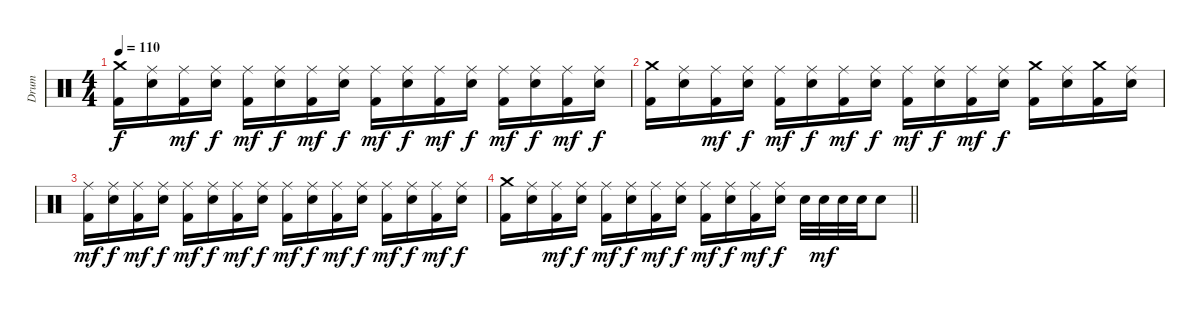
\track ("Drum" "Drum") {instrument percussion}
\staff {score}
\articulation defaults
\ts (4 4)
\tempo 110
\clef neutral
\ks c
("Crash medium (hit)" "Kick (hit) 2").16{dy f} ("Ride (middle)" "Snare (hit) 2").16 ("Ride (middle)" "Kick (hit) 2").16{dy mf} ("Ride (middle)" "Snare (hit) 2").16{dy f} ("Ride (middle)" "Kick (hit) 2").16{dy mf} ("Ride (middle)" "Snare (hit) 2").16{dy f} ("Ride (middle)" "Kick (hit) 2").16{dy mf} ("Ride (middle)" "Snare (hit) 2").16{dy f} ("Ride (middle)" "Kick (hit) 2").16{dy mf} ("Ride (middle)" "Snare (hit) 2").16{dy f} ("Ride (middle)" "Kick (hit) 2").16{dy mf} ("Ride (middle)" "Snare (hit) 2").16{dy f} ("Ride (middle)" "Kick (hit) 2").16{dy mf} ("Ride (middle)" "Snare (hit) 2").16{dy f} ("Ride (middle)" "Kick (hit) 2").16{dy mf} ("Ride (middle)" "Snare (hit) 2").16{dy f} |
("Crash medium (hit)" "Kick (hit) 2").16 ("Ride (middle)" "Snare (hit) 2").16 ("Ride (middle)" "Kick (hit) 2").16{dy mf} ("Ride (middle)" "Snare (hit) 2").16{dy f} ("Ride (middle)" "Kick (hit) 2").16{dy mf} ("Ride (middle)" "Snare (hit) 2").16{dy f} ("Ride (middle)" "Kick (hit) 2").16{dy mf} ("Ride (middle)" "Snare (hit) 2").16{dy f} ("Ride (middle)" "Kick (hit) 2").16{dy mf} ("Ride (middle)" "Snare (hit) 2").16{dy f} ("Ride (middle)" "Kick (hit) 2").16{dy mf} ("Ride (middle)" "Snare (hit) 2").16{dy f} ("Crash medium (hit)" "Kick (hit) 2").16 ("Ride (middle)" "Snare (hit) 2").16 ("Crash medium (hit)" "Kick (hit) 2").16 ("Ride (middle)" "Snare (hit) 2").16 |
("Ride (middle)" "Kick (hit) 2").16{dy mf} ("Ride (middle)" "Snare (hit) 2").16{dy f} ("Ride (middle)" "Kick (hit) 2").16{dy mf} ("Ride (middle)" "Snare (hit) 2").16{dy f} ("Ride (middle)" "Kick (hit) 2").16{dy mf} ("Ride (middle)" "Snare (hit) 2").16{dy f} ("Ride (middle)" "Kick (hit) 2").16{dy mf} ("Ride (middle)" "Snare (hit) 2").16{dy f} ("Ride (middle)" "Kick (hit) 2").16{dy mf} ("Ride (middle)" "Snare (hit) 2").16{dy f} ("Ride (middle)" "Kick (hit) 2").16{dy mf} ("Ride (middle)" "Snare (hit) 2").16{dy f} ("Ride (middle)" "Kick (hit) 2").16{dy mf} ("Ride (middle)" "Snare (hit) 2").16{dy f} ("Ride (middle)" "Kick (hit) 2").16{dy mf} ("Ride (middle)" "Snare (hit) 2").16{dy f} |
\barLineRight lightlight
("Crash medium (hit)" "Kick (hit) 2").16 ("Ride (middle)" "Snare (hit) 2").16 ("Ride (middle)" "Kick (hit) 2").16{dy mf} ("Ride (middle)" "Snare (hit) 2").16{dy f} ("Ride (middle)" "Kick (hit) 2").16{dy mf} ("Ride (middle)" "Snare (hit) 2").16{dy f} ("Ride (middle)" "Kick (hit) 2").16{dy mf} ("Ride (middle)" "Snare (hit) 2").16{dy f} ("Ride (middle)" "Kick (hit) 2").16{dy mf} ("Ride (middle)" "Snare (hit) 2").16{dy f} ("Ride (middle)" "Kick (hit) 2").16{dy mf} ("Ride (middle)" "Snare (hit) 2").16{dy f} "Snare (hit) 2".32 "Snare (hit) 2".32{dy mf} "Snare (hit) 2".32 "Snare (hit) 2".32 "Snare (hit) 2".8
